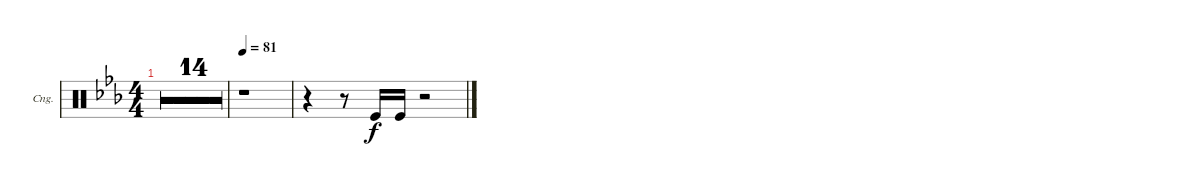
\bracketExtendMode groupsimilarinstruments
\firstSystemTrackNameOrientation horizontal
\otherSystemsTrackNameOrientation horizontal
\defaultBarNumberDisplay FirstOfSystem
\track ("Congas" "Cng.") {multiBarRest instrument percussion}
\staff {score}
\articulation defaults
\ts (4 4)
\tempo 77
\clef neutral
\ks eb
|
|
|
|
|
|
|
|
|
|
|
|
|
|
\tempo 81
r.1 |
r.4 r.8 "Kick (hit)".16 "Kick (hit)".16 r.2
